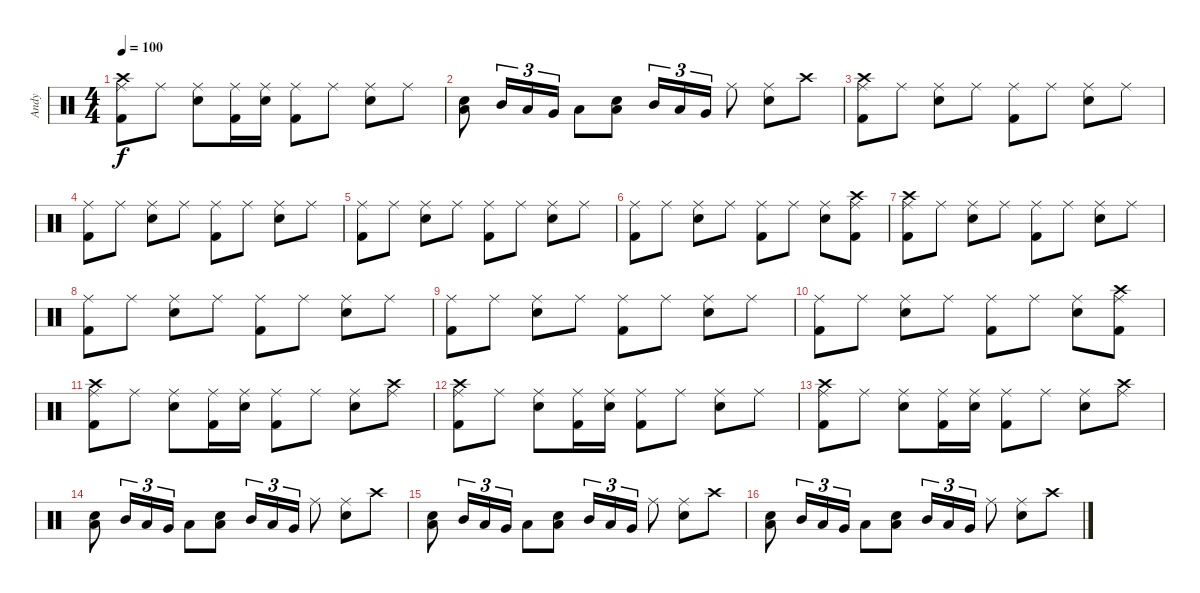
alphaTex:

\track ("Andy" "Andy") {instrument percussion}
\staff {score}
\articulation defaults
\ts (4 4)
\tempo 100
\clef neutral
\ks c
("Crash high (hit)" "Ride (middle)" "Kick (hit) 2").8{dy f} "Ride (middle)".8 ("Ride (middle)" "Snare (hit) 2").8 ("Ride (middle)" "Kick (hit) 2").16 ("Ride (middle)" "Snare (hit) 2").16 ("Ride (middle)" "Kick (hit) 2").8 "Ride (middle)".8 ("Ride (middle)" "Snare (hit) 2").8 "Ride (middle)".8 |
("Low Floor Tom (hit)" "Snare (hit) 2").8 "Mid Tom (hit)".16{tu (3 2)} "Low Tom (hit)".16{tu (3 2)} "Very Low Tom (hit)".16{tu (3 2)} "Low Floor Tom (hit)".8 ("Low Floor Tom (hit)" "Snare (hit) 2").8 "Mid Tom (hit)".16{tu (3 2)} "Low Tom (hit)".16{tu (3 2)} "Very Low Tom (hit)".16{tu (3 2)} "Ride (middle)".8 ("Ride (middle)" "Snare (hit) 2").8 "Crash high (hit)".8 |
("Crash high (hit)" "Ride (middle)" "Kick (hit) 2").8 "Ride (middle)".8 ("Ride (middle)" "Snare (hit) 2").8 "Ride (middle)".8 ("Ride (middle)" "Kick (hit) 2").8 "Ride (middle)".8 ("Ride (middle)" "Snare (hit) 2").8 "Ride (middle)".8 |
("Ride (middle)" "Kick (hit) 2").8 "Ride (middle)".8 ("Ride (middle)" "Snare (hit) 2").8 "Ride (middle)".8 ("Ride (middle)" "Kick (hit) 2").8 "Ride (middle)".8 ("Ride (middle)" "Snare (hit) 2").8 "Ride (middle)".8 |
("Ride (middle)" "Kick (hit) 2").8 "Ride (middle)".8 ("Ride (middle)" "Snare (hit) 2").8 "Ride (middle)".8 ("Ride (middle)" "Kick (hit) 2").8 "Ride (middle)".8 ("Ride (middle)" "Snare (hit) 2").8 "Ride (middle)".8 |
("Ride (middle)" "Kick (hit) 2").8 "Ride (middle)".8 ("Ride (middle)" "Snare (hit) 2").8 "Ride (middle)".8 ("Ride (middle)" "Kick (hit) 2").8 "Ride (middle)".8 ("Ride (middle)" "Snare (hit) 2").8 ("Crash high (hit)" "Ride (middle)" "Kick (hit) 2").8 |
("Crash high (hit)" "Ride (middle)" "Kick (hit) 2").8 "Ride (middle)".8 ("Ride (middle)" "Snare (hit) 2").8 "Ride (middle)".8 ("Ride (middle)" "Kick (hit) 2").8 "Ride (middle)".8 ("Ride (middle)" "Snare (hit) 2").8 "Ride (middle)".8 |
("Ride (middle)" "Kick (hit) 2").8 "Ride (middle)".8 ("Ride (middle)" "Snare (hit) 2").8 "Ride (middle)".8 ("Ride (middle)" "Kick (hit) 2").8 "Ride (middle)".8 ("Ride (middle)" "Snare (hit) 2").8 "Ride (middle)".8 |
("Ride (middle)" "Kick (hit) 2").8 "Ride (middle)".8 ("Ride (middle)" "Snare (hit) 2").8 "Ride (middle)".8 ("Ride (middle)" "Kick (hit) 2").8 "Ride (middle)".8 ("Ride (middle)" "Snare (hit) 2").8 "Ride (middle)".8 |
("Ride (middle)" "Kick (hit) 2").8 "Ride (middle)".8 ("Ride (middle)" "Snare (hit) 2").8 "Ride (middle)".8 ("Ride (middle)" "Kick (hit) 2").8 "Ride (middle)".8 ("Ride (middle)" "Snare (hit) 2").8 ("Crash high (hit)" "Ride (middle)" "Kick (hit) 2").8 |
("Crash high (hit)" "Ride (middle)" "Kick (hit) 2").8 "Ride (middle)".8 ("Ride (middle)" "Snare (hit) 2").8 ("Ride (middle)" "Kick (hit) 2").16 ("Ride (middle)" "Snare (hit) 2").16 ("Ride (middle)" "Kick (hit) 2").8 "Ride (middle)".8 ("Ride (middle)" "Snare (hit) 2").8 ("Crash high (hit)" "Ride (middle)").8 |
("Crash high (hit)" "Ride (middle)" "Kick (hit) 2").8 "Ride (middle)".8 ("Ride (middle)" "Snare (hit) 2").8 ("Ride (middle)" "Kick (hit) 2").16 ("Ride (middle)" "Snare (hit) 2").16 ("Ride (middle)" "Kick (hit) 2").8 "Ride (middle)".8 ("Ride (middle)" "Snare (hit) 2").8 "Ride (middle)".8 |
("Crash high (hit)" "Ride (middle)" "Kick (hit) 2").8 "Ride (middle)".8 ("Ride (middle)" "Snare (hit) 2").8 ("Ride (middle)" "Kick (hit) 2").16 ("Ride (middle)" "Snare (hit) 2").16 ("Ride (middle)" "Kick (hit) 2").8 "Ride (middle)".8 ("Ride (middle)" "Snare (hit) 2").8 ("Crash high (hit)" "Ride (middle)").8 |
("Low Floor Tom (hit)" "Snare (hit) 2").8 "Mid Tom (hit)".16{tu (3 2)} "Low Tom (hit)".16{tu (3 2)} "Very Low Tom (hit)".16{tu (3 2)} "Low Floor Tom (hit)".8 ("Low Floor Tom (hit)" "Snare (hit) 2").8 "Mid Tom (hit)".16{tu (3 2)} "Low Tom (hit)".16{tu (3 2)} "Very Low Tom (hit)".16{tu (3 2)} "Ride (middle)".8 ("Ride (middle)" "Snare (hit) 2").8 "Crash high (hit)".8 |
("Low Floor Tom (hit)" "Snare (hit) 2").8 "Mid Tom (hit)".16{tu (3 2)} "Low Tom (hit)".16{tu (3 2)} "Very Low Tom (hit)".16{tu (3 2)} "Low Floor Tom (hit)".8 ("Low Floor Tom (hit)" "Snare (hit) 2").8 "Mid Tom (hit)".16{tu (3 2)} "Low Tom (hit)".16{tu (3 2)} "Very Low Tom (hit)".16{tu (3 2)} "Ride (middle)".8 ("Ride (middle)" "Snare (hit) 2").8 "Crash high (hit)".8 |
("Low Floor Tom (hit)" "Snare (hit) 2").8 "Mid Tom (hit)".16{tu (3 2)} "Low Tom (hit)".16{tu (3 2)} "Very Low Tom (hit)".16{tu (3 2)} "Low Floor Tom (hit)".8 ("Low Floor Tom (hit)" "Snare (hit) 2").8 "Mid Tom (hit)".16{tu (3 2)} "Low Tom (hit)".16{tu (3 2)} "Very Low Tom (hit)".16{tu (3 2)} "Ride (middle)".8 ("Ride (middle)" "Snare (hit) 2").8 "Crash high (hit)".8
